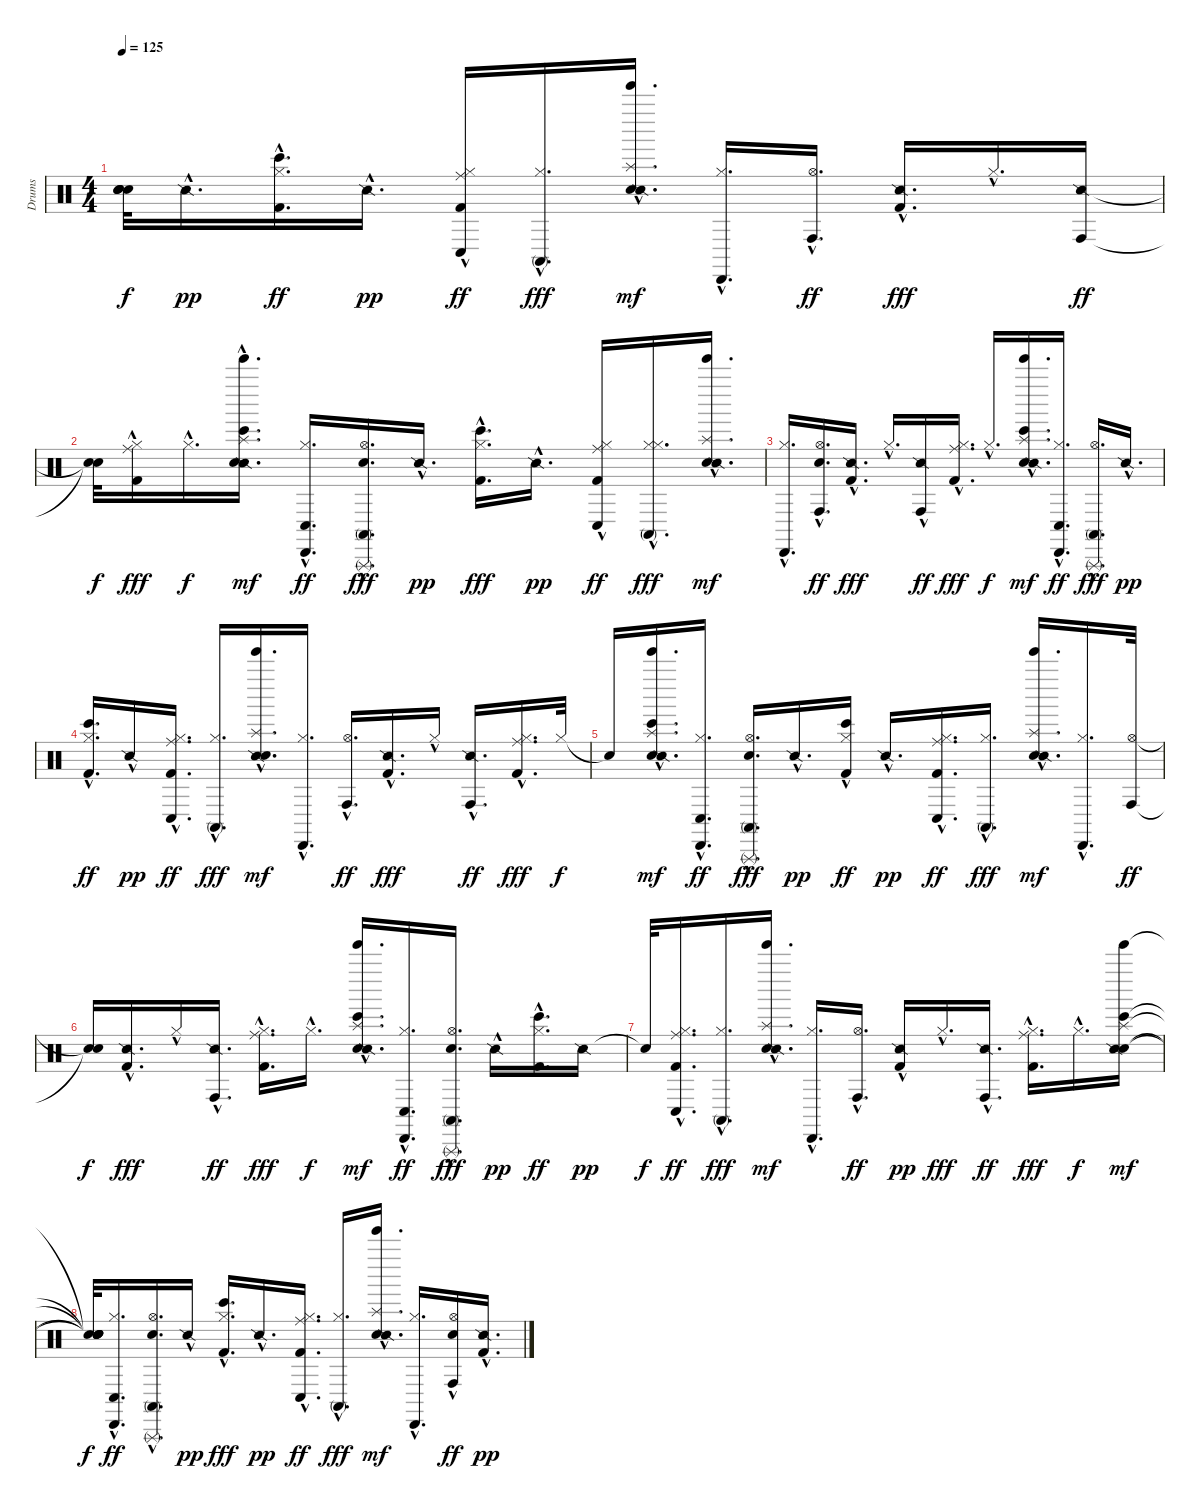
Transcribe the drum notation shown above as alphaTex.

\track ("Drums" "Drums") {instrument percussion}
\staff {score}
\articulation defaults
\ts (4 4)
\tempo 125
\clef neutral
\ks c
("Snare (hit)"{t} "Snare (hit)"{t} "Snare (hit)"{t} "Snare (hit)"{t}).32{dy f} "Snare (side stick) 2"{hac}.16{d dy pp} ("Hi-Hat (closed)"{hac} "Kick (hit) 2"{hac} "Bongo High (hit)"{hac}).16{d dy ff} "Snare (side stick) 2"{hac}.16{d dy pp} ("Hi-Hat (closed)"{hac} "Ride (middle)"{hac} "Kick (hit) 2"{hac} "Conga low (hit)"{hac}).16{dy ff} ("Hi-Hat (closed)"{hac} "Conga high (mute)"{hac}).16{d dy fff} ("Hand Clap (hit)"{hac} "Snare (side stick) 2"{hac} "Tinkle Bell (hit)"{hac} "Splash (hit)"{hac}).16{d dy mf} ("Hi-Hat (closed)"{hac} "Cabasa (hit)"{hac}).16{d} ("Hi-Hat (open)"{hac} "Conga high (hit)"{hac}).16{d dy ff} ("Snare (side stick) 2"{hac} "Kick (hit) 2"{hac}).16{d dy fff} "Hi-Hat (closed)"{hac}.16{d} ("Snare (side stick) 2" "Conga high (hit)").16{dy ff} |
("Snare (hit)"{t} "Snare (hit)"{t}).32{dy f} ("Kick (hit) 2"{hac} "Hi-Hat (closed)"{hac} "Ride (middle)"{hac}).16{dy fff} "Hi-Hat (closed)"{hac}.16{d dy f} ("Snare (side stick) 2"{hac} "Hand Clap (hit)"{hac} "Bongo High (hit)"{hac} "Tinkle Bell (hit)"{hac} "Splash (hit)"{hac}).16{d dy mf} ("Hi-Hat (closed)"{hac} "Cabasa (hit)"{hac} "Conga low (hit)"{hac}).16{d dy ff} ("Conga high (mute)"{hac} "Hand Clap (hit)"{hac} "Triangle (rnute)"{hac} "Hi-Hat (open)"{hac}).16{d dy fff} "Snare (side stick) 2"{hac}.16{d dy pp} ("Bongo High (hit)"{hac} "Kick (hit) 2"{hac} "Hi-Hat (closed)"{hac}).16{d dy fff} "Snare (side stick) 2"{hac}.16{d dy pp} ("Ride (middle)"{hac} "Hi-Hat (closed)"{hac} "Kick (hit) 2"{hac} "Conga low (hit)"{hac}).16{dy ff} ("Hi-Hat (closed)"{hac} "Hi-Hat (closed)"{hac} "Conga high (mute)"{hac}).16{d dy fff} ("Hand Clap (hit)"{hac} "Snare (side stick) 2"{hac} "Tinkle Bell (hit)"{hac} "Splash (hit)"{hac}).16{d dy mf} |
("Hi-Hat (closed)"{hac} "Cabasa (hit)"{hac}).16{d} ("Hand Clap (hit)"{hac} "Hi-Hat (open)"{hac} "Conga high (hit)"{hac}).16{d dy ff} ("Snare (side stick) 2"{hac} "Kick (hit) 2"{hac}).16{d dy fff} "Hi-Hat (closed)"{hac}.16{d} ("Snare (side stick) 2"{hac} "Conga high (hit)"{hac}).16{dy ff} ("Hi-Hat (closed)"{hac} "Ride (middle)"{hac} "Kick (hit) 2"{hac}).16{d dy fff} "Hi-Hat (closed)"{hac}.16{d dy f} ("Hand Clap (hit)"{hac} "Snare (side stick) 2"{hac} "Bongo High (hit)"{hac} "Tinkle Bell (hit)"{hac} "Splash (hit)"{hac}).16{d dy mf} ("Hi-Hat (closed)"{hac} "Cabasa (hit)"{hac} "Conga low (hit)"{hac}).16{d dy ff} ("Conga high (mute)"{hac} "Triangle (rnute)"{hac} "Hi-Hat (open)"{hac}).16{d dy fff} "Snare (side stick) 2"{hac}.16{d dy pp} |
("Kick (hit) 2"{hac} "Hi-Hat (closed)"{hac} "Bongo High (hit)"{hac}).16{d dy ff} "Snare (side stick) 2"{hac}.16{dy pp} ("Kick (hit) 2"{hac} "Hi-Hat (closed)"{hac} "Conga low (hit)"{hac} "Ride (middle)"{hac}).16{d dy ff} ("Hi-Hat (closed)"{hac} "Conga high (mute)"{hac}).16{d dy fff} ("Snare (side stick) 2"{hac} "Hand Clap (hit)"{hac} "Tinkle Bell (hit)"{hac} "Splash (hit)"{hac}).16{d dy mf} ("Cabasa (hit)"{hac} "Hi-Hat (closed)"{hac}).16{d} ("Hi-Hat (open)"{hac} "Conga high (hit)"{hac}).16{d dy ff} ("Snare (side stick) 2"{hac} "Kick (hit) 2"{hac}).16{d dy fff} "Hi-Hat (closed)"{hac}.16 ("Snare (side stick) 2"{hac} "Conga high (hit)"{hac}).16{d dy ff} ("Hi-Hat (closed)"{hac} "Ride (middle)"{hac} "Kick (hit) 2"{hac}).16{d dy fff} "Hi-Hat (closed)".32{dy f} |
"Snare (hit)"{t}.16 ("Hand Clap (hit)"{hac} "Snare (side stick) 2"{hac} "Bongo High (hit)"{hac} "Tinkle Bell (hit)"{hac} "Splash (hit)"{hac}).16{d dy mf} ("Cabasa (hit)"{hac} "Hi-Hat (closed)"{hac} "Conga low (hit)"{hac}).16{d dy ff} ("Conga high (mute)"{hac} "Triangle (rnute)"{hac} "Hand Clap (hit)"{hac} "Hi-Hat (open)"{hac}).16{d dy fff} "Snare (side stick) 2"{hac}.16{d dy pp} ("Hi-Hat (closed)"{hac} "Kick (hit) 2"{hac} "Bongo High (hit)"{hac}).16{dy ff} "Snare (side stick) 2"{hac}.16{d dy pp} ("Ride (middle)"{hac} "Kick (hit) 2"{hac} "Conga low (hit)"{hac} "Hi-Hat (closed)"{hac}).16{d dy ff} ("Hi-Hat (closed)"{hac} "Conga high (mute)"{hac}).16{d dy fff} ("Hand Clap (hit)"{hac} "Snare (side stick) 2"{hac} "Tinkle Bell (hit)"{hac} "Splash (hit)"{hac}).16{d dy mf} ("Hi-Hat (closed)"{hac} "Cabasa (hit)"{hac}).16{d} ("Hi-Hat (open)" "Conga high (hit)").32{dy ff} |
("Snare (hit)"{t} "Snare (hit)"{t}).16{dy f} ("Snare (side stick) 2"{hac} "Kick (hit) 2"{hac}).16{d dy fff} "Hi-Hat (closed)"{hac}.16 ("Snare (side stick) 2"{hac} "Conga high (hit)"{hac}).16{d dy ff} ("Ride (middle)"{hac} "Kick (hit) 2"{hac} "Hi-Hat (closed)"{hac}).16{d dy fff} "Hi-Hat (closed)"{hac}.16{d dy f} ("Hand Clap (hit)"{hac} "Snare (side stick) 2"{hac} "Bongo High (hit)"{hac} "Tinkle Bell (hit)"{hac} "Splash (hit)"{hac}).16{d dy mf} ("Hi-Hat (closed)"{hac} "Cabasa (hit)"{hac} "Conga low (hit)"{hac}).16{d dy ff} ("Hi-Hat (open)"{hac} "Conga high (mute)"{hac} "Triangle (rnute)"{hac} "Hand Clap (hit)"{hac}).16{d dy fff} "Snare (side stick) 2"{hac}.16{dy pp} ("Kick (hit) 2"{hac} "Hi-Hat (closed)"{hac} "Bongo High (hit)"{hac}).16{d dy ff} "Snare (side stick) 2".16{dy pp} |
"Snare (hit)"{t}.32{dy f} ("Kick (hit) 2"{hac} "Conga low (hit)"{hac} "Hi-Hat (closed)"{hac} "Ride (middle)"{hac}).16{d dy ff} ("Hi-Hat (closed)"{hac} "Conga high (mute)"{hac}).16{d dy fff} ("Hand Clap (hit)"{hac} "Snare (side stick) 2"{hac} "Tinkle Bell (hit)"{hac} "Splash (hit)"{hac}).16{d dy mf} ("Cabasa (hit)"{hac} "Hi-Hat (closed)"{hac}).16{d} ("Hi-Hat (open)"{hac} "Conga high (hit)"{hac}).16{d dy ff} ("Kick (hit) 2"{hac} "Snare (side stick) 2"{hac}).16{dy pp} "Hi-Hat (closed)"{hac}.16{d dy fff} ("Snare (side stick) 2"{hac} "Conga high (hit)"{hac}).16{d dy ff} ("Ride (middle)"{hac} "Hi-Hat (closed)"{hac} "Kick (hit) 2"{hac}).16{d dy fff} "Hi-Hat (closed)"{hac}.16{d dy f} ("Hand Clap (hit)" "Snare (side stick) 2" "Bongo High (hit)" "Tinkle Bell (hit)" "Splash (hit)").16{dy mf} |
("Snare (hit)"{t} "Snare (hit)"{t} "Snare (hit)"{t} "Snare (hit)"{t} "Snare (hit)"{t}).32{dy f} ("Hi-Hat (closed)"{hac} "Cabasa (hit)"{hac} "Conga low (hit)"{hac}).16{d dy ff} ("Hand Clap (hit)"{hac} "Hi-Hat (open)"{hac} "Conga high (mute)"{hac} "Triangle (rnute)"{hac}).16{d} "Snare (side stick) 2"{hac}.16{dy pp} ("Hi-Hat (closed)"{hac} "Bongo High (hit)"{hac} "Kick (hit) 2"{hac}).16{d dy fff} "Snare (side stick) 2"{hac}.16{d dy pp} ("Kick (hit) 2"{hac} "Hi-Hat (closed)"{hac} "Ride (middle)"{hac} "Conga low (hit)"{hac}).16{d dy ff} ("Hi-Hat (closed)"{hac} "Conga high (mute)"{hac}).16{d dy fff} ("Hand Clap (hit)"{hac} "Snare (side stick) 2"{hac} "Tinkle Bell (hit)"{hac} "Splash (hit)"{hac}).16{d dy mf} ("Hi-Hat (closed)"{hac} "Cabasa (hit)"{hac}).16{d} ("Hand Clap (hit)"{hac} "Hi-Hat (open)"{hac} "Conga high (hit)"{hac}).16{dy ff} ("Kick (hit) 2"{hac} "Snare (side stick) 2"{hac}).16{d dy pp}
